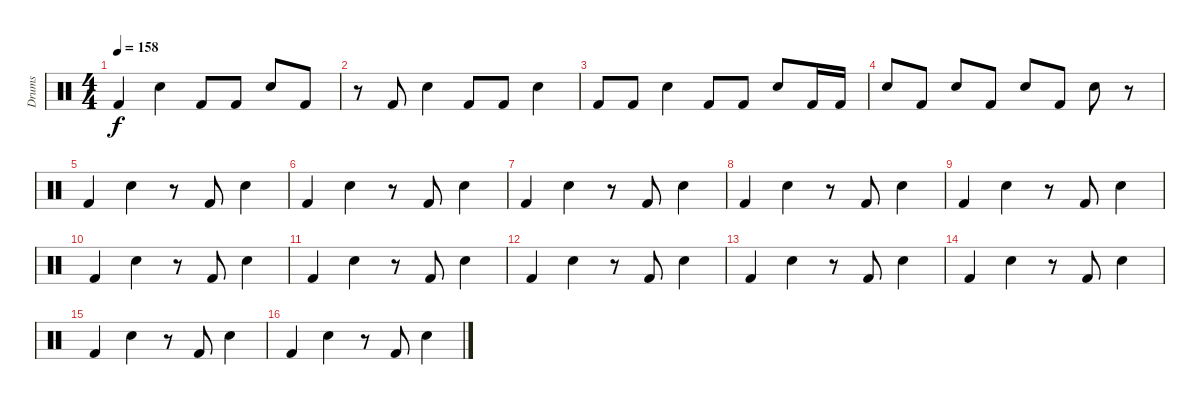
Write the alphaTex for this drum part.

\track ("Drums" "Drums") {instrument percussion}
\staff {score}
\articulation defaults
\ts (4 4)
\tempo 158
\clef neutral
\ks c "Kick (hit) 2".4{dy f} "Snare (hit) 2".4 "Kick (hit) 2".8 "Kick (hit) 2".8 "Snare (hit) 2".8 "Kick (hit) 2".8
|
r.8 "Kick (hit) 2".8 "Snare (hit) 2".4 "Kick (hit) 2".8 "Kick (hit) 2".8 "Snare (hit) 2".4 |
"Kick (hit) 2".8 "Kick (hit) 2".8 "Snare (hit) 2".4 "Kick (hit) 2".8 "Kick (hit) 2".8 "Snare (hit) 2".8 "Kick (hit) 2".16 "Kick (hit) 2".16 |
"Snare (hit) 2".8 "Kick (hit) 2".8 "Snare (hit) 2".8 "Kick (hit) 2".8 "Snare (hit) 2".8 "Kick (hit) 2".8 "Snare (hit) 2".8 r.8 |
"Kick (hit) 2".4 "Snare (hit) 2".4 r.8 "Kick (hit) 2".8 "Snare (hit) 2".4 |
"Kick (hit) 2".4 "Snare (hit) 2".4 r.8 "Kick (hit) 2".8 "Snare (hit) 2".4 |
"Kick (hit) 2".4 "Snare (hit) 2".4 r.8 "Kick (hit) 2".8 "Snare (hit) 2".4 |
"Kick (hit) 2".4 "Snare (hit) 2".4 r.8 "Kick (hit) 2".8 "Snare (hit) 2".4 |
"Kick (hit) 2".4 "Snare (hit) 2".4 r.8 "Kick (hit) 2".8 "Snare (hit) 2".4 |
"Kick (hit) 2".4 "Snare (hit) 2".4 r.8 "Kick (hit) 2".8 "Snare (hit) 2".4 |
"Kick (hit) 2".4 "Snare (hit) 2".4 r.8 "Kick (hit) 2".8 "Snare (hit) 2".4 |
"Kick (hit) 2".4 "Snare (hit) 2".4 r.8 "Kick (hit) 2".8 "Snare (hit) 2".4 |
"Kick (hit) 2".4 "Snare (hit) 2".4 r.8 "Kick (hit) 2".8 "Snare (hit) 2".4 |
"Kick (hit) 2".4 "Snare (hit) 2".4 r.8 "Kick (hit) 2".8 "Snare (hit) 2".4 |
"Kick (hit) 2".4 "Snare (hit) 2".4 r.8 "Kick (hit) 2".8 "Snare (hit) 2".4 |
"Kick (hit) 2".4 "Snare (hit) 2".4 r.8 "Kick (hit) 2".8 "Snare (hit) 2".4
